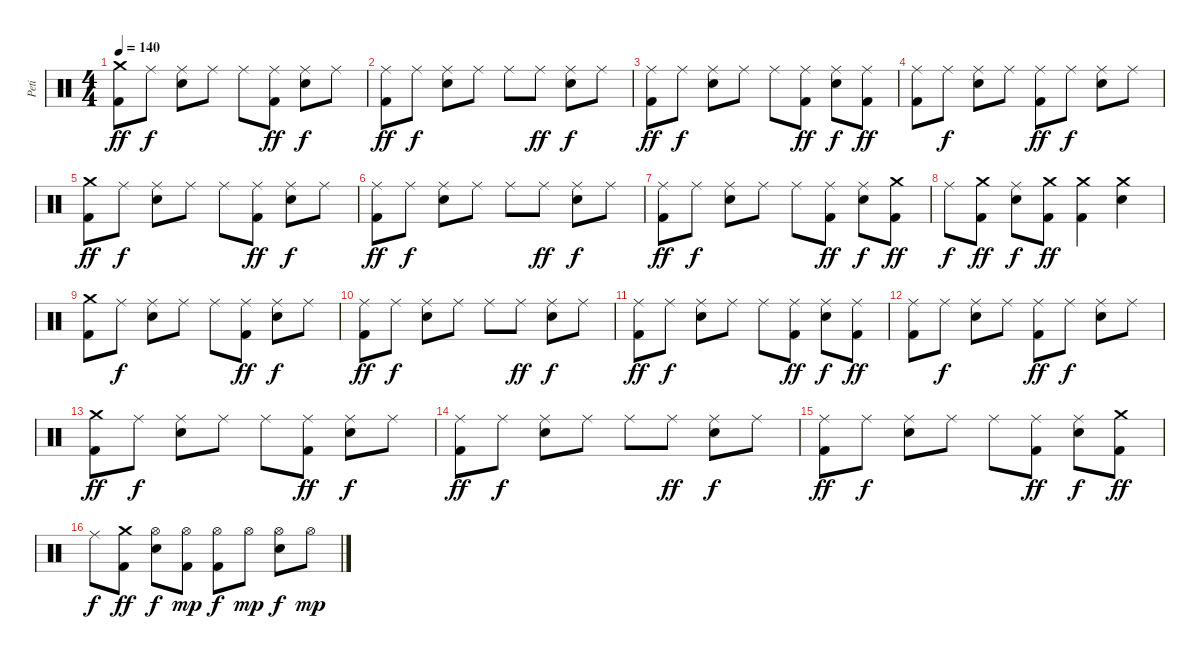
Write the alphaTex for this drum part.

\track ("Peti" "Peti") {instrument percussion}
\staff {score}
\articulation defaults
\ts (4 4)
\tempo 140
\clef neutral
\ks c
("Crash medium (hit)" "Kick (hit) 2").8{dy ff} "Ride (middle)".8{dy f} ("Ride (middle)" "Snare (hit) 2").8 "Ride (middle)".8 "Ride (middle)".8 ("Ride (middle)" "Kick (hit) 2").8{dy ff} ("Ride (middle)" "Snare (hit) 2").8{dy f} "Ride (middle)".8 |
("Ride (middle)" "Kick (hit) 2").8{dy ff} "Ride (middle)".8{dy f} ("Ride (middle)" "Snare (hit) 2").8 "Ride (middle)".8 "Ride (middle)".8 "Ride (middle)".8{dy ff} ("Ride (middle)" "Snare (hit) 2").8{dy f} "Ride (middle)".8 |
("Ride (middle)" "Kick (hit) 2").8{dy ff} "Ride (middle)".8{dy f} ("Ride (middle)" "Snare (hit) 2").8 "Ride (middle)".8 "Ride (middle)".8 ("Ride (middle)" "Kick (hit) 2").8{dy ff} ("Ride (middle)" "Snare (hit) 2").8{dy f} ("Ride (middle)" "Kick (hit) 2").8{dy ff} |
("Ride (middle)" "Kick (hit) 2").8 "Ride (middle)".8{dy f} ("Ride (middle)" "Snare (hit) 2").8 "Ride (middle)".8 ("Ride (middle)" "Kick (hit) 2").8{dy ff} "Ride (middle)".8{dy f} ("Ride (middle)" "Snare (hit) 2").8 "Ride (middle)".8 |
("Crash medium (hit)" "Kick (hit) 2").8{dy ff} "Ride (middle)".8{dy f} ("Ride (middle)" "Snare (hit) 2").8 "Ride (middle)".8 "Ride (middle)".8 ("Ride (middle)" "Kick (hit) 2").8{dy ff} ("Ride (middle)" "Snare (hit) 2").8{dy f} "Ride (middle)".8 |
("Ride (middle)" "Kick (hit) 2").8{dy ff} "Ride (middle)".8{dy f} ("Ride (middle)" "Snare (hit) 2").8 "Ride (middle)".8 "Ride (middle)".8 "Ride (middle)".8{dy ff} ("Ride (middle)" "Snare (hit) 2").8{dy f} "Ride (middle)".8 |
("Ride (middle)" "Kick (hit) 2").8{dy ff} "Ride (middle)".8{dy f} ("Ride (middle)" "Snare (hit) 2").8 "Ride (middle)".8 "Ride (middle)".8 ("Ride (middle)" "Kick (hit) 2").8{dy ff} ("Ride (middle)" "Snare (hit) 2").8{dy f} ("Crash medium (hit)" "Kick (hit) 2").8{dy ff} |
"Ride (middle)".8{dy f} ("Crash medium (hit)" "Kick (hit) 2").8{dy ff} ("Ride (middle)" "Snare (hit) 2").8{dy f} ("Crash medium (hit)" "Kick (hit) 2").8{dy ff} ("Crash medium (hit)" "Kick (hit) 2").4 ("Crash medium (hit)" "Snare (hit) 2").4 |
("Crash medium (hit)" "Kick (hit) 2").8 "Ride (middle)".8{dy f} ("Ride (middle)" "Snare (hit) 2").8 "Ride (middle)".8 "Ride (middle)".8 ("Ride (middle)" "Kick (hit) 2").8{dy ff} ("Ride (middle)" "Snare (hit) 2").8{dy f} "Ride (middle)".8 |
("Ride (middle)" "Kick (hit) 2").8{dy ff} "Ride (middle)".8{dy f} ("Ride (middle)" "Snare (hit) 2").8 "Ride (middle)".8 "Ride (middle)".8 "Ride (middle)".8{dy ff} ("Ride (middle)" "Snare (hit) 2").8{dy f} "Ride (middle)".8 |
("Ride (middle)" "Kick (hit) 2").8{dy ff} "Ride (middle)".8{dy f} ("Ride (middle)" "Snare (hit) 2").8 "Ride (middle)".8 "Ride (middle)".8 ("Ride (middle)" "Kick (hit) 2").8{dy ff} ("Ride (middle)" "Snare (hit) 2").8{dy f} ("Ride (middle)" "Kick (hit) 2").8{dy ff} |
("Ride (middle)" "Kick (hit) 2").8 "Ride (middle)".8{dy f} ("Ride (middle)" "Snare (hit) 2").8 "Ride (middle)".8 ("Ride (middle)" "Kick (hit) 2").8{dy ff} "Ride (middle)".8{dy f} ("Ride (middle)" "Snare (hit) 2").8 "Ride (middle)".8 |
("Crash medium (hit)" "Kick (hit) 2").8{dy ff} "Ride (middle)".8{dy f} ("Ride (middle)" "Snare (hit) 2").8 "Ride (middle)".8 "Ride (middle)".8 ("Ride (middle)" "Kick (hit) 2").8{dy ff} ("Ride (middle)" "Snare (hit) 2").8{dy f} "Ride (middle)".8 |
("Ride (middle)" "Kick (hit) 2").8{dy ff} "Ride (middle)".8{dy f} ("Ride (middle)" "Snare (hit) 2").8 "Ride (middle)".8 "Ride (middle)".8 "Ride (middle)".8{dy ff} ("Ride (middle)" "Snare (hit) 2").8{dy f} "Ride (middle)".8 |
("Ride (middle)" "Kick (hit) 2").8{dy ff} "Ride (middle)".8{dy f} ("Ride (middle)" "Snare (hit) 2").8 "Ride (middle)".8 "Ride (middle)".8 ("Ride (middle)" "Kick (hit) 2").8{dy ff} ("Ride (middle)" "Snare (hit) 2").8{dy f} ("Crash medium (hit)" "Kick (hit) 2").8{dy ff} |
"Ride (middle)".8{dy f} ("Crash medium (hit)" "Kick (hit) 2").8{dy ff} ("Hi-Hat (open)" "Snare (hit) 2").8{dy f} ("Hi-Hat (open)" "Kick (hit) 2").8{dy mp} ("Hi-Hat (open)" "Kick (hit) 2").8{dy f} "Hi-Hat (open)".8{dy mp} ("Hi-Hat (open)" "Snare (hit) 2").8{dy f} "Hi-Hat (open)".8{dy mp}
